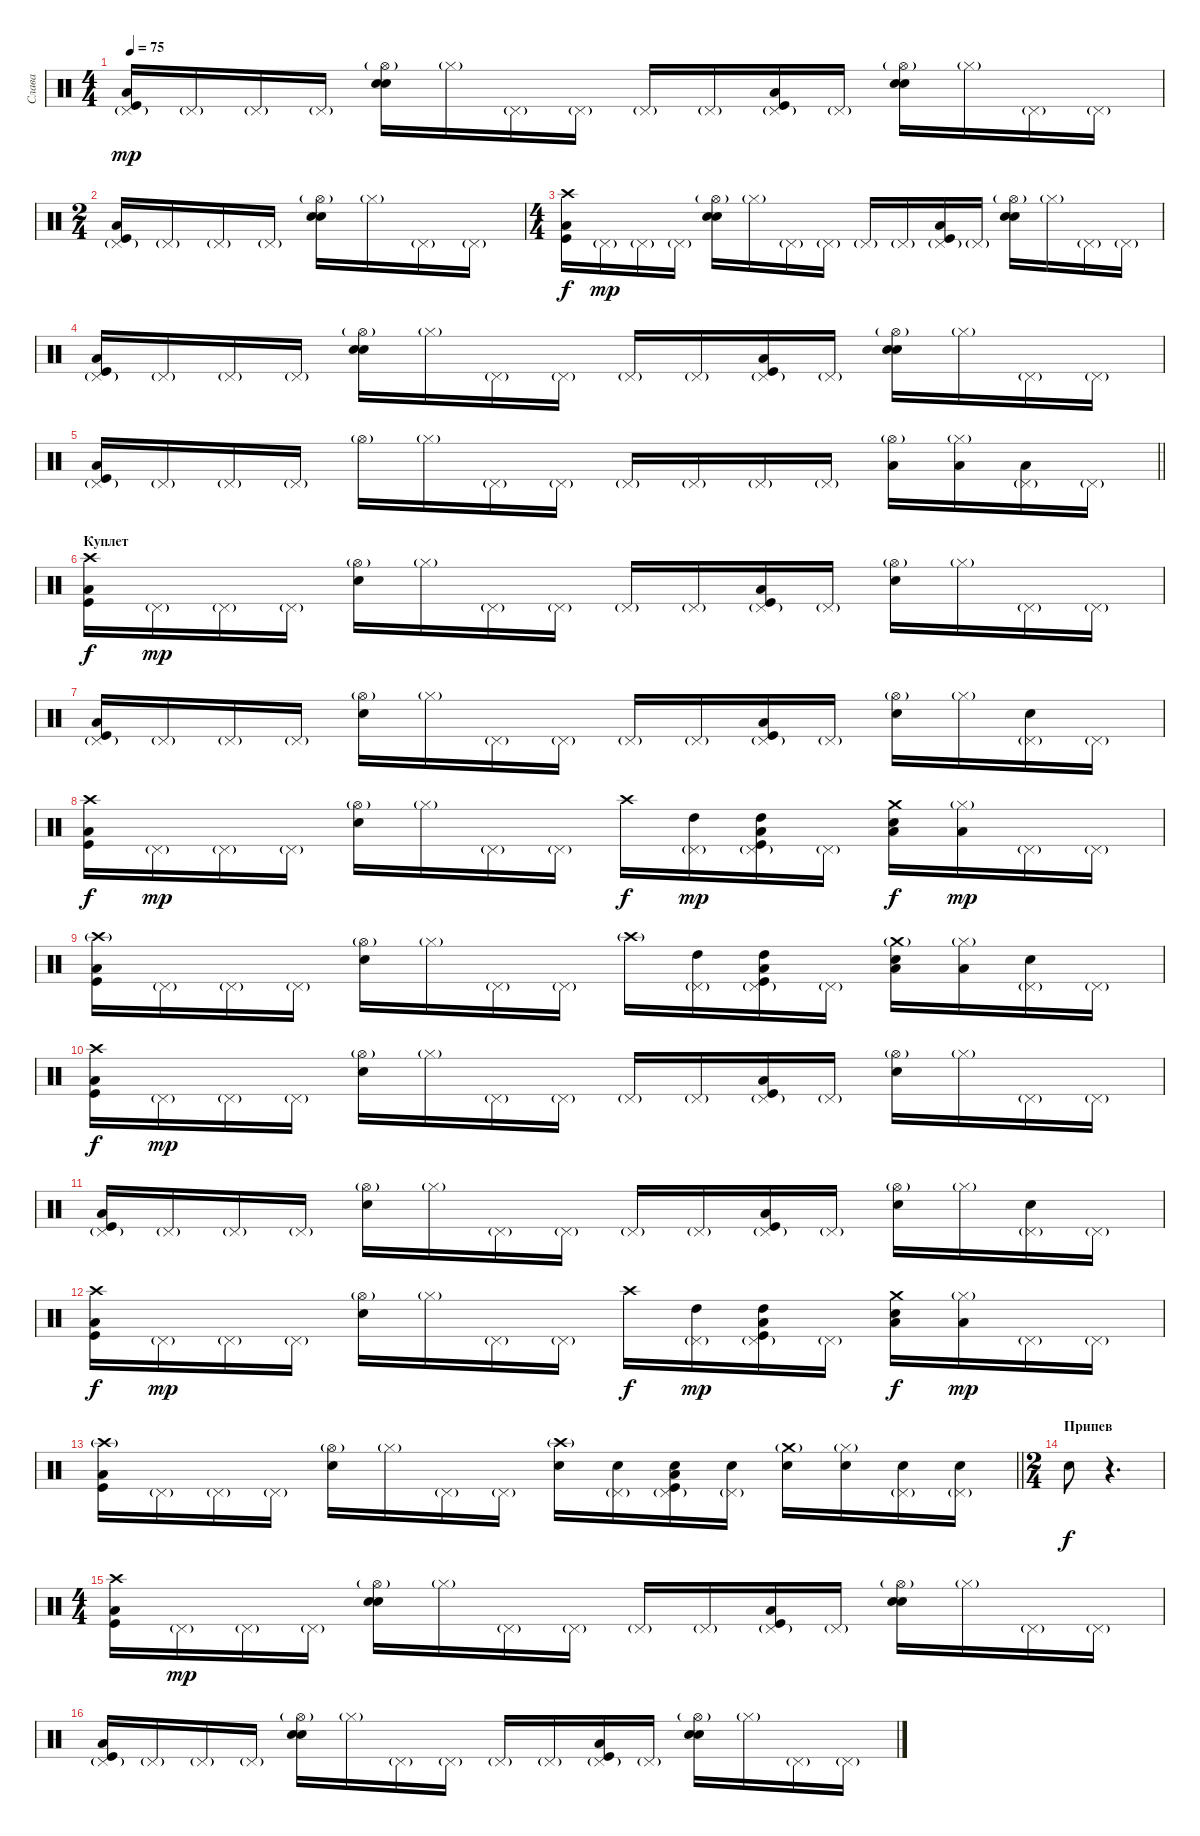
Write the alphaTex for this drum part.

\track ("Слава" "Слава") {instrument percussion}
\staff {score}
\articulation defaults
\ts (4 4)
\tempo 75
\clef neutral
\ks c
("Pedal Hi-Hat (hit)"{g} "Low Tom (hit)" "Kick (hit)").16{dy mp} "Pedal Hi-Hat (hit)"{g}.16 "Pedal Hi-Hat (hit)"{g}.16 "Pedal Hi-Hat (hit)"{g}.16 ("Hi-Hat (open)"{g} "Electric Snare (hit)" "Snare (hit) 2").16 "Hi-Hat (closed)"{g}.16 "Pedal Hi-Hat (hit)"{g}.16 "Pedal Hi-Hat (hit)"{g}.16 "Pedal Hi-Hat (hit)"{g}.16 "Pedal Hi-Hat (hit)"{g}.16 ("Pedal Hi-Hat (hit)"{g} "Low Tom (hit)" "Kick (hit)").16 "Pedal Hi-Hat (hit)"{g}.16 ("Hi-Hat (open)"{g} "Electric Snare (hit)" "Snare (hit) 2").16 "Hi-Hat (closed)"{g}.16 "Pedal Hi-Hat (hit)"{g}.16 "Pedal Hi-Hat (hit)"{g}.16 |
\ts (2 4)
("Pedal Hi-Hat (hit)"{g} "Low Tom (hit)" "Kick (hit)").16 "Pedal Hi-Hat (hit)"{g}.16 "Pedal Hi-Hat (hit)"{g}.16 "Pedal Hi-Hat (hit)"{g}.16 ("Hi-Hat (open)"{g} "Electric Snare (hit)" "Snare (hit) 2").16 "Hi-Hat (closed)"{g}.16 "Pedal Hi-Hat (hit)"{g}.16 "Pedal Hi-Hat (hit)"{g}.16 |
\ts (4 4)
("Crash high (hit)" "Low Tom (hit)" "Kick (hit)").16{dy f} "Pedal Hi-Hat (hit)"{g}.16{dy mp} "Pedal Hi-Hat (hit)"{g}.16 "Pedal Hi-Hat (hit)"{g}.16 ("Hi-Hat (open)"{g} "Electric Snare (hit)" "Snare (hit) 2").16 "Hi-Hat (closed)"{g}.16 "Pedal Hi-Hat (hit)"{g}.16 "Pedal Hi-Hat (hit)"{g}.16 "Pedal Hi-Hat (hit)"{g}.16 "Pedal Hi-Hat (hit)"{g}.16 ("Pedal Hi-Hat (hit)"{g} "Low Tom (hit)" "Kick (hit)").16 "Pedal Hi-Hat (hit)"{g}.16 ("Hi-Hat (open)"{g} "Electric Snare (hit)" "Snare (hit) 2").16 "Hi-Hat (closed)"{g}.16 "Pedal Hi-Hat (hit)"{g}.16 "Pedal Hi-Hat (hit)"{g}.16 |
("Pedal Hi-Hat (hit)"{g} "Low Tom (hit)" "Kick (hit)").16 "Pedal Hi-Hat (hit)"{g}.16 "Pedal Hi-Hat (hit)"{g}.16 "Pedal Hi-Hat (hit)"{g}.16 ("Hi-Hat (open)"{g} "Electric Snare (hit)" "Snare (hit) 2").16 "Hi-Hat (closed)"{g}.16 "Pedal Hi-Hat (hit)"{g}.16 "Pedal Hi-Hat (hit)"{g}.16 "Pedal Hi-Hat (hit)"{g}.16 "Pedal Hi-Hat (hit)"{g}.16 ("Pedal Hi-Hat (hit)"{g} "Low Tom (hit)" "Kick (hit)").16 "Pedal Hi-Hat (hit)"{g}.16 ("Hi-Hat (open)"{g} "Electric Snare (hit)" "Snare (hit) 2").16 "Hi-Hat (closed)"{g}.16 "Pedal Hi-Hat (hit)"{g}.16 "Pedal Hi-Hat (hit)"{g}.16 |
\barLineRight lightlight
("Pedal Hi-Hat (hit)"{g} "Low Tom (hit)" "Kick (hit)").16 "Pedal Hi-Hat (hit)"{g}.16 "Pedal Hi-Hat (hit)"{g}.16 "Pedal Hi-Hat (hit)"{g}.16 "Hi-Hat (open)"{g}.16 "Hi-Hat (closed)"{g}.16 "Pedal Hi-Hat (hit)"{g}.16 "Pedal Hi-Hat (hit)"{g}.16 "Pedal Hi-Hat (hit)"{g}.16 "Pedal Hi-Hat (hit)"{g}.16 "Pedal Hi-Hat (hit)"{g}.16 "Pedal Hi-Hat (hit)"{g}.16 ("Hi-Hat (open)"{g} "Low Tom (hit)").16 ("Hi-Hat (closed)"{g} "Low Tom (hit)").16 ("Pedal Hi-Hat (hit)"{g} "Low Tom (hit)").16 "Pedal Hi-Hat (hit)"{g}.16 |
\section ("" "Куплет")
("Crash high (hit)" "Low Tom (hit)" "Kick (hit)").16{dy f} "Pedal Hi-Hat (hit)"{g}.16{dy mp} "Pedal Hi-Hat (hit)"{g}.16 "Pedal Hi-Hat (hit)"{g}.16 ("Hi-Hat (open)"{g} "Snare (hit) 2").16 "Hi-Hat (closed)"{g}.16 "Pedal Hi-Hat (hit)"{g}.16 "Pedal Hi-Hat (hit)"{g}.16 "Pedal Hi-Hat (hit)"{g}.16 "Pedal Hi-Hat (hit)"{g}.16 ("Pedal Hi-Hat (hit)"{g} "Low Tom (hit)" "Kick (hit)").16 "Pedal Hi-Hat (hit)"{g}.16 ("Hi-Hat (open)"{g} "Snare (hit) 2").16 "Hi-Hat (closed)"{g}.16 "Pedal Hi-Hat (hit)"{g}.16 "Pedal Hi-Hat (hit)"{g}.16 |
("Pedal Hi-Hat (hit)"{g} "Low Tom (hit)" "Kick (hit)").16 "Pedal Hi-Hat (hit)"{g}.16 "Pedal Hi-Hat (hit)"{g}.16 "Pedal Hi-Hat (hit)"{g}.16 ("Hi-Hat (open)"{g} "Snare (hit) 2").16 "Hi-Hat (closed)"{g}.16 "Pedal Hi-Hat (hit)"{g}.16 "Pedal Hi-Hat (hit)"{g}.16 "Pedal Hi-Hat (hit)"{g}.16 "Pedal Hi-Hat (hit)"{g}.16 ("Pedal Hi-Hat (hit)"{g} "Low Tom (hit)" "Kick (hit)").16 "Pedal Hi-Hat (hit)"{g}.16 ("Hi-Hat (open)"{g} "Snare (hit) 2").16 "Hi-Hat (closed)"{g}.16 ("Pedal Hi-Hat (hit)"{g} "Snare (hit) 2").16 "Pedal Hi-Hat (hit)"{g}.16 |
("Crash high (hit)" "Low Tom (hit)" "Kick (hit)").16{dy f} "Pedal Hi-Hat (hit)"{g}.16{dy mp} "Pedal Hi-Hat (hit)"{g}.16 "Pedal Hi-Hat (hit)"{g}.16 ("Hi-Hat (open)"{g} "Snare (hit) 2").16 "Hi-Hat (closed)"{g}.16 "Pedal Hi-Hat (hit)"{g}.16 "Pedal Hi-Hat (hit)"{g}.16 "Crash high (hit)".16{dy f} ("Pedal Hi-Hat (hit)"{g} "High Tom (hit)").16{dy mp} ("Pedal Hi-Hat (hit)"{g} "High Tom (hit)" "Low Tom (hit)" "Kick (hit)").16 "Pedal Hi-Hat (hit)"{g}.16 ("Crash medium (hit)" "Low Tom (hit)" "Snare (hit) 2").16{dy f} ("Hi-Hat (closed)"{g} "Low Tom (hit)").16{dy mp} "Pedal Hi-Hat (hit)"{g}.16 "Pedal Hi-Hat (hit)"{g}.16 |
("Crash high (hit)"{g} "Low Tom (hit)" "Kick (hit)").16 "Pedal Hi-Hat (hit)"{g}.16 "Pedal Hi-Hat (hit)"{g}.16 "Pedal Hi-Hat (hit)"{g}.16 ("Hi-Hat (open)"{g} "Snare (hit) 2").16 "Hi-Hat (closed)"{g}.16 "Pedal Hi-Hat (hit)"{g}.16 "Pedal Hi-Hat (hit)"{g}.16 "Crash high (hit)"{g}.16 ("Pedal Hi-Hat (hit)"{g} "High Tom (hit)").16 ("Pedal Hi-Hat (hit)"{g} "High Tom (hit)" "Low Tom (hit)" "Kick (hit)").16 "Pedal Hi-Hat (hit)"{g}.16 ("Crash medium (hit)"{g} "Low Tom (hit)" "Snare (hit) 2").16 ("Hi-Hat (closed)"{g} "Low Tom (hit)").16 ("Pedal Hi-Hat (hit)"{g} "Snare (hit) 2").16 "Pedal Hi-Hat (hit)"{g}.16 |
("Crash high (hit)" "Low Tom (hit)" "Kick (hit)").16{dy f} "Pedal Hi-Hat (hit)"{g}.16{dy mp} "Pedal Hi-Hat (hit)"{g}.16 "Pedal Hi-Hat (hit)"{g}.16 ("Hi-Hat (open)"{g} "Snare (hit) 2").16 "Hi-Hat (closed)"{g}.16 "Pedal Hi-Hat (hit)"{g}.16 "Pedal Hi-Hat (hit)"{g}.16 "Pedal Hi-Hat (hit)"{g}.16 "Pedal Hi-Hat (hit)"{g}.16 ("Pedal Hi-Hat (hit)"{g} "Low Tom (hit)" "Kick (hit)").16 "Pedal Hi-Hat (hit)"{g}.16 ("Hi-Hat (open)"{g} "Snare (hit) 2").16 "Hi-Hat (closed)"{g}.16 "Pedal Hi-Hat (hit)"{g}.16 "Pedal Hi-Hat (hit)"{g}.16 |
("Pedal Hi-Hat (hit)"{g} "Low Tom (hit)" "Kick (hit)").16 "Pedal Hi-Hat (hit)"{g}.16 "Pedal Hi-Hat (hit)"{g}.16 "Pedal Hi-Hat (hit)"{g}.16 ("Hi-Hat (open)"{g} "Snare (hit) 2").16 "Hi-Hat (closed)"{g}.16 "Pedal Hi-Hat (hit)"{g}.16 "Pedal Hi-Hat (hit)"{g}.16 "Pedal Hi-Hat (hit)"{g}.16 "Pedal Hi-Hat (hit)"{g}.16 ("Pedal Hi-Hat (hit)"{g} "Low Tom (hit)" "Kick (hit)").16 "Pedal Hi-Hat (hit)"{g}.16 ("Hi-Hat (open)"{g} "Snare (hit) 2").16 "Hi-Hat (closed)"{g}.16 ("Pedal Hi-Hat (hit)"{g} "Snare (hit) 2").16 "Pedal Hi-Hat (hit)"{g}.16 |
("Crash high (hit)" "Low Tom (hit)" "Kick (hit)").16{dy f} "Pedal Hi-Hat (hit)"{g}.16{dy mp} "Pedal Hi-Hat (hit)"{g}.16 "Pedal Hi-Hat (hit)"{g}.16 ("Hi-Hat (open)"{g} "Snare (hit) 2").16 "Hi-Hat (closed)"{g}.16 "Pedal Hi-Hat (hit)"{g}.16 "Pedal Hi-Hat (hit)"{g}.16 "Crash high (hit)".16{dy f} ("Pedal Hi-Hat (hit)"{g} "High Tom (hit)").16{dy mp} ("Pedal Hi-Hat (hit)"{g} "High Tom (hit)" "Low Tom (hit)" "Kick (hit)").16 "Pedal Hi-Hat (hit)"{g}.16 ("Crash medium (hit)" "Low Tom (hit)" "Snare (hit) 2").16{dy f} ("Hi-Hat (closed)"{g} "Low Tom (hit)").16{dy mp} "Pedal Hi-Hat (hit)"{g}.16 "Pedal Hi-Hat (hit)"{g}.16 |
\barLineRight lightlight
("Crash high (hit)"{g} "Low Tom (hit)" "Kick (hit)").16 "Pedal Hi-Hat (hit)"{g}.16 "Pedal Hi-Hat (hit)"{g}.16 "Pedal Hi-Hat (hit)"{g}.16 ("Hi-Hat (open)"{g} "Snare (hit) 2").16 "Hi-Hat (closed)"{g}.16 "Pedal Hi-Hat (hit)"{g}.16 "Pedal Hi-Hat (hit)"{g}.16 ("Crash high (hit)"{g} "Snare (hit) 2").16 ("Pedal Hi-Hat (hit)"{g} "Snare (hit) 2").16 ("Pedal Hi-Hat (hit)"{g} "Snare (hit) 2" "Low Tom (hit)" "Kick (hit)").16 ("Pedal Hi-Hat (hit)"{g} "Snare (hit) 2").16 ("Crash medium (hit)"{g} "Electric Snare (hit)").16 ("Hi-Hat (closed)"{g} "Electric Snare (hit)").16 ("Pedal Hi-Hat (hit)"{g} "Electric Snare (hit)").16 ("Pedal Hi-Hat (hit)"{g} "Electric Snare (hit)").16 |
\ts (2 4)
\section ("" "Припев")
"Electric Snare (hit)".8{dy f} r.4{d} |
\ts (4 4)
("Crash high (hit)" "Low Tom (hit)" "Kick (hit)").16 "Pedal Hi-Hat (hit)"{g}.16{dy mp} "Pedal Hi-Hat (hit)"{g}.16 "Pedal Hi-Hat (hit)"{g}.16 ("Hi-Hat (open)"{g} "Electric Snare (hit)" "Snare (hit) 2").16 "Hi-Hat (closed)"{g}.16 "Pedal Hi-Hat (hit)"{g}.16 "Pedal Hi-Hat (hit)"{g}.16 "Pedal Hi-Hat (hit)"{g}.16 "Pedal Hi-Hat (hit)"{g}.16 ("Pedal Hi-Hat (hit)"{g} "Low Tom (hit)" "Kick (hit)").16 "Pedal Hi-Hat (hit)"{g}.16 ("Hi-Hat (open)"{g} "Electric Snare (hit)" "Snare (hit) 2").16 "Hi-Hat (closed)"{g}.16 "Pedal Hi-Hat (hit)"{g}.16 "Pedal Hi-Hat (hit)"{g}.16 |
("Pedal Hi-Hat (hit)"{g} "Low Tom (hit)" "Kick (hit)").16 "Pedal Hi-Hat (hit)"{g}.16 "Pedal Hi-Hat (hit)"{g}.16 "Pedal Hi-Hat (hit)"{g}.16 ("Hi-Hat (open)"{g} "Electric Snare (hit)" "Snare (hit) 2").16 "Hi-Hat (closed)"{g}.16 "Pedal Hi-Hat (hit)"{g}.16 "Pedal Hi-Hat (hit)"{g}.16 "Pedal Hi-Hat (hit)"{g}.16 "Pedal Hi-Hat (hit)"{g}.16 ("Pedal Hi-Hat (hit)"{g} "Low Tom (hit)" "Kick (hit)").16 "Pedal Hi-Hat (hit)"{g}.16 ("Hi-Hat (open)"{g} "Electric Snare (hit)" "Snare (hit) 2").16 "Hi-Hat (closed)"{g}.16 "Pedal Hi-Hat (hit)"{g}.16 "Pedal Hi-Hat (hit)"{g}.16
